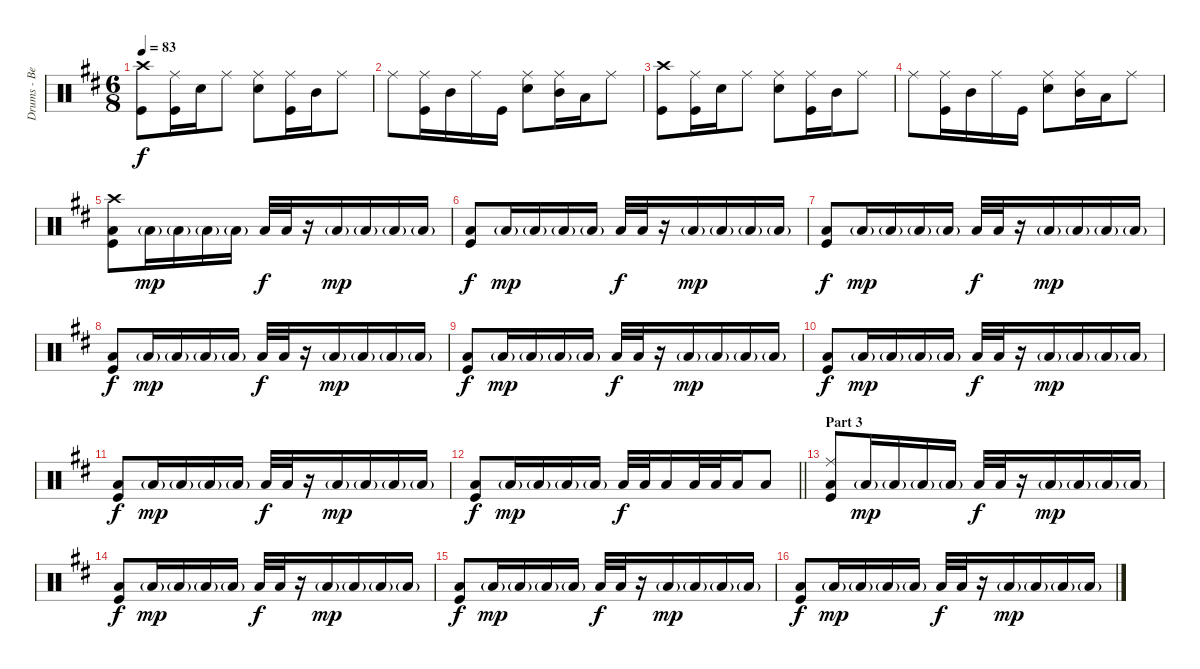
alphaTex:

\track ("Drums - Ben Johnston" "Drums - Be") {instrument percussion}
\staff {score}
\articulation defaults
\ts (6 8)
\tempo 83
\clef neutral
\ks d
("Crash high (hit)" "Kick (hit)").8{dy f} ("Ride (middle)" "Kick (hit)").16 "Snare (hit) 2".16 "Ride (middle)".8 ("Ride (middle)" "Snare (hit) 2").8 ("Ride (middle)" "Kick (hit)").16 "Mid Tom (hit)".16 "Ride (middle)".8 |
"Ride (middle)".8 ("Ride (middle)" "Kick (hit)").16 "Mid Tom (hit)".16 "Ride (middle)".16 "Kick (hit)".16 ("Ride (middle)" "Snare (hit) 2").8 ("Ride (middle)" "Mid Tom (hit)").16 "Low Tom (hit)".16 "Ride (middle)".8 |
("Crash high (hit)" "Kick (hit)").8 ("Ride (middle)" "Kick (hit)").16 "Snare (hit) 2".16 "Ride (middle)".8 ("Ride (middle)" "Snare (hit) 2").8 ("Ride (middle)" "Kick (hit)").16 "Mid Tom (hit)".16 "Ride (middle)".8 |
"Ride (middle)".8 ("Ride (middle)" "Kick (hit)").16 "Mid Tom (hit)".16 "Ride (middle)".16 "Kick (hit)".16 ("Ride (middle)" "Snare (hit) 2").8 ("Ride (middle)" "Mid Tom (hit)").16 "Low Tom (hit)".16 "Ride (middle)".8 |
("Crash high (hit)" "Low Tom (hit)" "Kick (hit)").8 "Low Tom (hit)"{g}.16{dy mp} "Low Tom (hit)"{g}.16 "Low Tom (hit)"{g}.16 "Low Tom (hit)"{g}.16 "Low Tom (hit)".32{dy f} "Low Tom (hit)".32 r.16 "Low Tom (hit)"{g}.16{dy mp} "Low Tom (hit)"{g}.16 "Low Tom (hit)"{g}.16 "Low Tom (hit)"{g}.16 |
("Low Tom (hit)" "Kick (hit)").8{dy f} "Low Tom (hit)"{g}.16{dy mp} "Low Tom (hit)"{g}.16 "Low Tom (hit)"{g}.16 "Low Tom (hit)"{g}.16 "Low Tom (hit)".32{dy f} "Low Tom (hit)".32 r.16 "Low Tom (hit)"{g}.16{dy mp} "Low Tom (hit)"{g}.16 "Low Tom (hit)"{g}.16 "Low Tom (hit)"{g}.16 |
("Low Tom (hit)" "Kick (hit)").8{dy f} "Low Tom (hit)"{g}.16{dy mp} "Low Tom (hit)"{g}.16 "Low Tom (hit)"{g}.16 "Low Tom (hit)"{g}.16 "Low Tom (hit)".32{dy f} "Low Tom (hit)".32 r.16 "Low Tom (hit)"{g}.16{dy mp} "Low Tom (hit)"{g}.16 "Low Tom (hit)"{g}.16 "Low Tom (hit)"{g}.16 |
("Low Tom (hit)" "Kick (hit)").8{dy f} "Low Tom (hit)"{g}.16{dy mp} "Low Tom (hit)"{g}.16 "Low Tom (hit)"{g}.16 "Low Tom (hit)"{g}.16 "Low Tom (hit)".32{dy f} "Low Tom (hit)".32 r.16 "Low Tom (hit)"{g}.16{dy mp} "Low Tom (hit)"{g}.16 "Low Tom (hit)"{g}.16 "Low Tom (hit)"{g}.16 |
("Low Tom (hit)" "Kick (hit)").8{dy f} "Low Tom (hit)"{g}.16{dy mp} "Low Tom (hit)"{g}.16 "Low Tom (hit)"{g}.16 "Low Tom (hit)"{g}.16 "Low Tom (hit)".32{dy f} "Low Tom (hit)".32 r.16 "Low Tom (hit)"{g}.16{dy mp} "Low Tom (hit)"{g}.16 "Low Tom (hit)"{g}.16 "Low Tom (hit)"{g}.16 |
("Low Tom (hit)" "Kick (hit)").8{dy f} "Low Tom (hit)"{g}.16{dy mp} "Low Tom (hit)"{g}.16 "Low Tom (hit)"{g}.16 "Low Tom (hit)"{g}.16 "Low Tom (hit)".32{dy f} "Low Tom (hit)".32 r.16 "Low Tom (hit)"{g}.16{dy mp} "Low Tom (hit)"{g}.16 "Low Tom (hit)"{g}.16 "Low Tom (hit)"{g}.16 |
("Low Tom (hit)" "Kick (hit)").8{dy f} "Low Tom (hit)"{g}.16{dy mp} "Low Tom (hit)"{g}.16 "Low Tom (hit)"{g}.16 "Low Tom (hit)"{g}.16 "Low Tom (hit)".32{dy f} "Low Tom (hit)".32 r.16 "Low Tom (hit)"{g}.16{dy mp} "Low Tom (hit)"{g}.16 "Low Tom (hit)"{g}.16 "Low Tom (hit)"{g}.16 |
\barLineRight lightlight
("Low Tom (hit)" "Kick (hit)").8{dy f} "Low Tom (hit)"{g}.16{dy mp} "Low Tom (hit)"{g}.16 "Low Tom (hit)"{g}.16 "Low Tom (hit)"{g}.16 "Low Tom (hit)".32{dy f} "Low Tom (hit)".32 "Low Tom (hit)".16 "Low Tom (hit)".32 "Low Tom (hit)".32 "Low Tom (hit)".16 "Low Tom (hit)".8 |
\section ("" "Part 3")
("Ride (middle)" "Low Tom (hit)" "Kick (hit)").8 "Low Tom (hit)"{g}.16{dy mp} "Low Tom (hit)"{g}.16 "Low Tom (hit)"{g}.16 "Low Tom (hit)"{g}.16 "Low Tom (hit)".32{dy f} "Low Tom (hit)".32 r.16 "Low Tom (hit)"{g}.16{dy mp} "Low Tom (hit)"{g}.16 "Low Tom (hit)"{g}.16 "Low Tom (hit)"{g}.16 |
("Low Tom (hit)" "Kick (hit)").8{dy f} "Low Tom (hit)"{g}.16{dy mp} "Low Tom (hit)"{g}.16 "Low Tom (hit)"{g}.16 "Low Tom (hit)"{g}.16 "Low Tom (hit)".32{dy f} "Low Tom (hit)".32 r.16 "Low Tom (hit)"{g}.16{dy mp} "Low Tom (hit)"{g}.16 "Low Tom (hit)"{g}.16 "Low Tom (hit)"{g}.16 |
("Low Tom (hit)" "Kick (hit)").8{dy f} "Low Tom (hit)"{g}.16{dy mp} "Low Tom (hit)"{g}.16 "Low Tom (hit)"{g}.16 "Low Tom (hit)"{g}.16 "Low Tom (hit)".32{dy f} "Low Tom (hit)".32 r.16 "Low Tom (hit)"{g}.16{dy mp} "Low Tom (hit)"{g}.16 "Low Tom (hit)"{g}.16 "Low Tom (hit)"{g}.16 |
("Low Tom (hit)" "Kick (hit)").8{dy f} "Low Tom (hit)"{g}.16{dy mp} "Low Tom (hit)"{g}.16 "Low Tom (hit)"{g}.16 "Low Tom (hit)"{g}.16 "Low Tom (hit)".32{dy f} "Low Tom (hit)".32 r.16 "Low Tom (hit)"{g}.16{dy mp} "Low Tom (hit)"{g}.16 "Low Tom (hit)"{g}.16 "Low Tom (hit)"{g}.16
